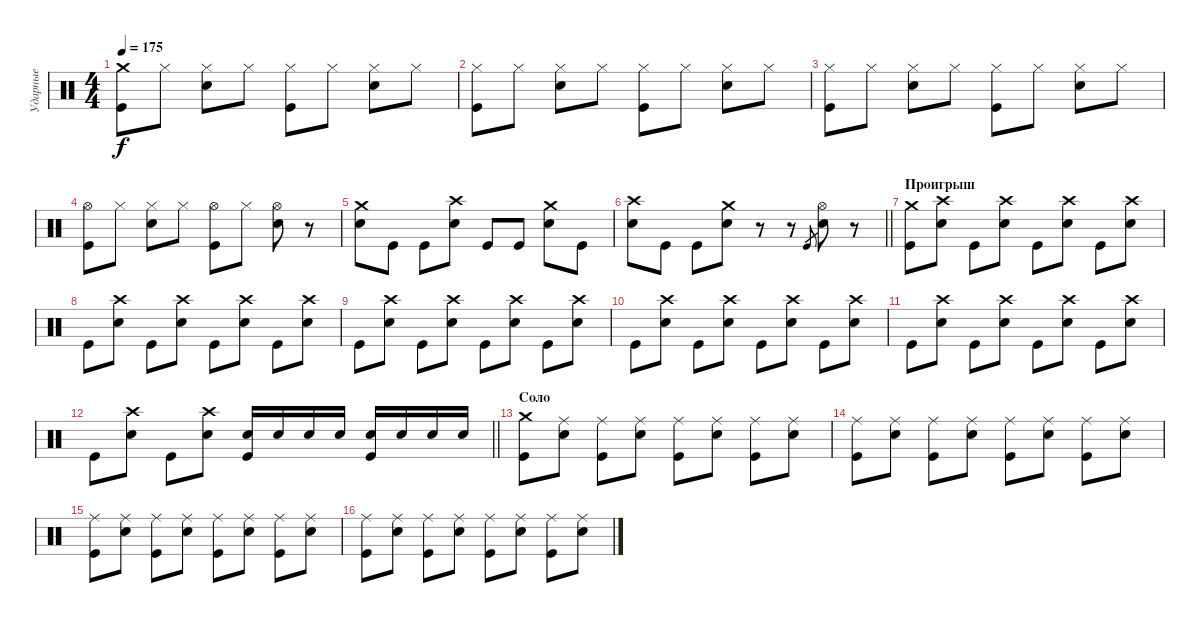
\track ("Ударные" "Ударные") {instrument percussion}
\staff {score}
\articulation defaults
\ts (4 4)
\section ("" " ")
\tempo 175
\clef neutral
\ks c
("Crash medium (hit)" "Kick (hit)").8{dy f} "Hi-Hat (closed)".8 ("Hi-Hat (closed)" "Electric Snare (hit)").8 "Hi-Hat (closed)".8 ("Hi-Hat (closed)" "Kick (hit)").8 "Hi-Hat (closed)".8 ("Hi-Hat (closed)" "Electric Snare (hit)").8 "Hi-Hat (closed)".8 |
("Hi-Hat (closed)" "Kick (hit)").8 "Hi-Hat (closed)".8 ("Hi-Hat (closed)" "Electric Snare (hit)").8 "Hi-Hat (closed)".8 ("Hi-Hat (closed)" "Kick (hit)").8 "Hi-Hat (closed)".8 ("Hi-Hat (closed)" "Electric Snare (hit)").8 "Hi-Hat (closed)".8 |
("Hi-Hat (closed)" "Kick (hit)").8 "Hi-Hat (closed)".8 ("Hi-Hat (closed)" "Electric Snare (hit)").8 "Hi-Hat (closed)".8 ("Hi-Hat (closed)" "Kick (hit)").8 "Hi-Hat (closed)".8 ("Hi-Hat (closed)" "Electric Snare (hit)").8 "Hi-Hat (closed)".8 |
("Hi-Hat (open)" "Kick (hit)").8 "Hi-Hat (closed)".8 ("Hi-Hat (closed)" "Electric Snare (hit)").8 "Hi-Hat (closed)".8 ("Hi-Hat (open)" "Kick (hit)").8 "Hi-Hat (closed)".8 ("Hi-Hat (open)" "Electric Snare (hit)").8 r.8 |
("Crash medium (hit)" "Electric Snare (hit)").8 "Kick (hit)".8 "Kick (hit)".8 ("Crash high (hit)" "Electric Snare (hit)").8 "Kick (hit)".8 "Kick (hit)".8 ("Crash medium (hit)" "Electric Snare (hit)").8 "Kick (hit)".8 |
\barLineRight lightlight
("Crash high (hit)" "Electric Snare (hit)").8 "Kick (hit)".8 "Kick (hit)".8 ("Crash medium (hit)" "Electric Snare (hit)").8 r.8 r.8 "Kick (hit)".8{gr} ("Hi-Hat (open)" "Electric Snare (hit)").8 r.8 |
\section ("" "Проигрыш")
("Crash medium (hit)" "Kick (hit)").8 ("Crash high (hit)" "Electric Snare (hit)").8 "Kick (hit)".8 ("Crash high (hit)" "Electric Snare (hit)").8 "Kick (hit)".8 ("Crash high (hit)" "Electric Snare (hit)").8 "Kick (hit)".8 ("Crash high (hit)" "Electric Snare (hit)").8 |
"Kick (hit)".8 ("Crash high (hit)" "Electric Snare (hit)").8 "Kick (hit)".8 ("Crash high (hit)" "Electric Snare (hit)").8 "Kick (hit)".8 ("Crash high (hit)" "Electric Snare (hit)").8 "Kick (hit)".8 ("Crash high (hit)" "Electric Snare (hit)").8 |
"Kick (hit)".8 ("Crash high (hit)" "Electric Snare (hit)").8 "Kick (hit)".8 ("Crash high (hit)" "Electric Snare (hit)").8 "Kick (hit)".8 ("Crash high (hit)" "Electric Snare (hit)").8 "Kick (hit)".8 ("Crash high (hit)" "Electric Snare (hit)").8 |
"Kick (hit)".8 ("Crash high (hit)" "Electric Snare (hit)").8 "Kick (hit)".8 ("Crash high (hit)" "Electric Snare (hit)").8 "Kick (hit)".8 ("Crash high (hit)" "Electric Snare (hit)").8 "Kick (hit)".8 ("Crash high (hit)" "Electric Snare (hit)").8 |
"Kick (hit)".8 ("Crash high (hit)" "Electric Snare (hit)").8 "Kick (hit)".8 ("Crash high (hit)" "Electric Snare (hit)").8 "Kick (hit)".8 ("Crash high (hit)" "Electric Snare (hit)").8 "Kick (hit)".8 ("Crash high (hit)" "Electric Snare (hit)").8 |
\barLineRight lightlight "Kick (hit)".8
("Crash high (hit)" "Electric Snare (hit)").8 "Kick (hit)".8 ("Crash high (hit)" "Electric Snare (hit)").8 ("Electric Snare (hit)" "Kick (hit)").16 "Electric Snare (hit)".16 "Electric Snare (hit)".16 "Electric Snare (hit)".16 ("Electric Snare (hit)" "Kick (hit)").16 "Electric Snare (hit)".16 "Electric Snare (hit)".16 "Electric Snare (hit)".16 |
\section ("" "Соло")
("Crash medium (hit)" "Kick (hit)").8 ("Ride (middle)" "Electric Snare (hit)").8 ("Ride (middle)" "Kick (hit)").8 ("Ride (middle)" "Electric Snare (hit)").8 ("Ride (middle)" "Kick (hit)").8 ("Ride (middle)" "Electric Snare (hit)").8 ("Ride (middle)" "Kick (hit)").8 ("Ride (middle)" "Electric Snare (hit)").8 |
("Ride (middle)" "Kick (hit)").8 ("Ride (middle)" "Electric Snare (hit)").8 ("Ride (middle)" "Kick (hit)").8 ("Ride (middle)" "Electric Snare (hit)").8 ("Ride (middle)" "Kick (hit)").8 ("Ride (middle)" "Electric Snare (hit)").8 ("Ride (middle)" "Kick (hit)").8 ("Ride (middle)" "Electric Snare (hit)").8 |
("Ride (middle)" "Kick (hit)").8 ("Ride (middle)" "Electric Snare (hit)").8 ("Ride (middle)" "Kick (hit)").8 ("Ride (middle)" "Electric Snare (hit)").8 ("Ride (middle)" "Kick (hit)").8 ("Ride (middle)" "Electric Snare (hit)").8 ("Ride (middle)" "Kick (hit)").8 ("Ride (middle)" "Electric Snare (hit)").8 |
("Ride (middle)" "Kick (hit)").8 ("Ride (middle)" "Electric Snare (hit)").8 ("Ride (middle)" "Kick (hit)").8 ("Ride (middle)" "Electric Snare (hit)").8 ("Ride (middle)" "Kick (hit)").8 ("Ride (middle)" "Electric Snare (hit)").8 ("Ride (middle)" "Kick (hit)").8 ("Ride (middle)" "Electric Snare (hit)").8
